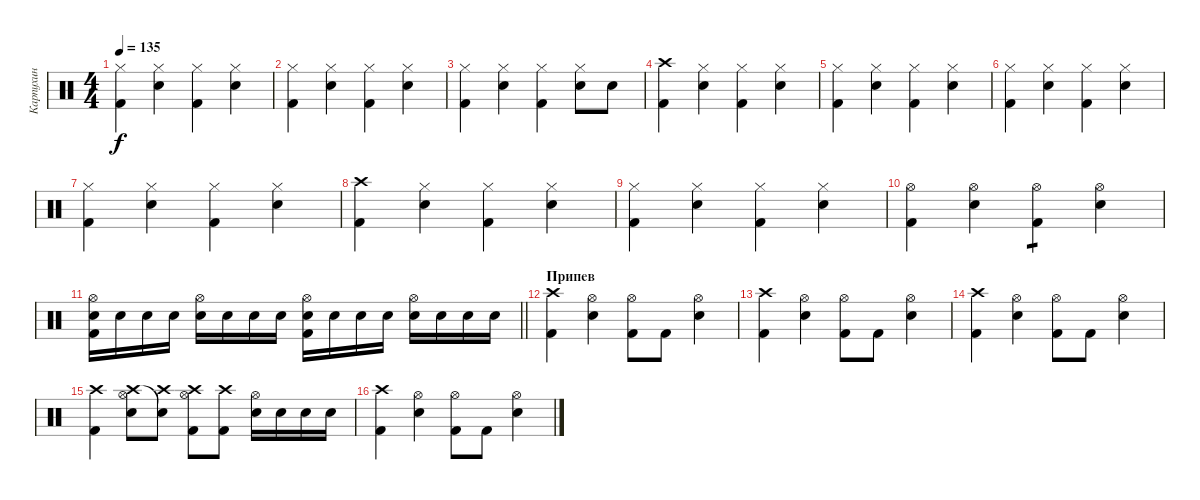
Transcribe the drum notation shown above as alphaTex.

\track ("Карпухин" "Карпухин") {instrument percussion}
\staff {score}
\articulation defaults
\ts (4 4)
\tempo 135
\clef neutral
\ks c
("Kick (hit) 2" "Hi-Hat (closed)").4{dy f} ("Snare (hit) 2" "Hi-Hat (closed)").4 ("Kick (hit) 2" "Hi-Hat (closed)").4 ("Snare (hit) 2" "Hi-Hat (closed)").4 |
("Kick (hit) 2" "Hi-Hat (closed)").4 ("Snare (hit) 2" "Hi-Hat (closed)").4 ("Kick (hit) 2" "Hi-Hat (closed)").4 ("Snare (hit) 2" "Hi-Hat (closed)").4 |
("Kick (hit) 2" "Hi-Hat (closed)").4 ("Snare (hit) 2" "Hi-Hat (closed)").4 ("Kick (hit) 2" "Hi-Hat (closed)").4 ("Snare (hit) 2" "Hi-Hat (closed)").8 "Snare (hit) 2".8 |
("Crash high (hit)" "Kick (hit) 2").4 ("Snare (hit) 2" "Hi-Hat (closed)").4 ("Kick (hit) 2" "Hi-Hat (closed)").4 ("Snare (hit) 2" "Hi-Hat (closed)").4 |
("Kick (hit) 2" "Hi-Hat (closed)").4 ("Snare (hit) 2" "Hi-Hat (closed)").4 ("Kick (hit) 2" "Hi-Hat (closed)").4 ("Snare (hit) 2" "Hi-Hat (closed)").4 |
("Kick (hit) 2" "Hi-Hat (closed)").4 ("Snare (hit) 2" "Hi-Hat (closed)").4 ("Kick (hit) 2" "Hi-Hat (closed)").4 ("Snare (hit) 2" "Hi-Hat (closed)").4 |
("Kick (hit) 2" "Hi-Hat (closed)").4 ("Snare (hit) 2" "Hi-Hat (closed)").4 ("Kick (hit) 2" "Hi-Hat (closed)").4 ("Snare (hit) 2" "Hi-Hat (closed)").4 |
("Crash high (hit)" "Kick (hit) 2").4 ("Snare (hit) 2" "Hi-Hat (closed)").4 ("Kick (hit) 2" "Hi-Hat (closed)").4 ("Snare (hit) 2" "Hi-Hat (closed)").4 |
("Kick (hit) 2" "Hi-Hat (closed)").4 ("Snare (hit) 2" "Hi-Hat (closed)").4 ("Kick (hit) 2" "Hi-Hat (closed)").4 ("Snare (hit) 2" "Hi-Hat (closed)").4 |
("Kick (hit) 2" "Hi-Hat (open)").4 ("Snare (hit) 2" "Hi-Hat (open)").4 ("Kick (hit) 2" "Hi-Hat (open)").4{tp 1} ("Snare (hit) 2" "Hi-Hat (open)").4 |
\barLineRight lightlight
("Snare (hit) 2" "Hi-Hat (open)" "Kick (hit) 2").16 "Snare (hit) 2".16 "Snare (hit) 2".16 "Snare (hit) 2".16 ("Snare (hit) 2" "Hi-Hat (open)").16 "Snare (hit) 2".16 "Snare (hit) 2".16 "Snare (hit) 2".16 ("Snare (hit) 2" "Hi-Hat (open)" "Kick (hit) 2").16 "Snare (hit) 2".16 "Snare (hit) 2".16 "Snare (hit) 2".16 ("Snare (hit) 2" "Hi-Hat (open)").16 "Snare (hit) 2".16 "Snare (hit) 2".16 "Snare (hit) 2".16 |
\section ("" "Припев")
("Crash high (hit)" "Kick (hit) 2").4 ("Snare (hit) 2" "Hi-Hat (open)").4 ("Kick (hit) 2" "Hi-Hat (open)").8 "Kick (hit) 2".8 ("Snare (hit) 2" "Hi-Hat (open)").4 |
("Crash high (hit)" "Kick (hit) 2").4 ("Snare (hit) 2" "Hi-Hat (open)").4 ("Kick (hit) 2" "Hi-Hat (open)").8 "Kick (hit) 2".8 ("Snare (hit) 2" "Hi-Hat (open)").4 |
("Crash high (hit)" "Kick (hit) 2").4 ("Snare (hit) 2" "Hi-Hat (open)").4 ("Kick (hit) 2" "Hi-Hat (open)").8 "Kick (hit) 2".8 ("Snare (hit) 2" "Hi-Hat (open)").4 |
("Crash high (hit)" "Kick (hit) 2").4 ("Hi-Hat (open)" "Crash high (hit)" "Snare (hit) 2").8 ("Crash high (hit)" "Snare (hit) 2"{t}).8 ("Hi-Hat (open)" "Crash high (hit)" "Kick (hit) 2").8 ("Crash high (hit)" "Kick (hit) 2").8 ("Hi-Hat (open)" "Snare (hit) 2").16 "Snare (hit) 2".16 "Snare (hit) 2".16 "Snare (hit) 2".16 |
("Crash high (hit)" "Kick (hit) 2").4 ("Snare (hit) 2" "Hi-Hat (open)").4 ("Kick (hit) 2" "Hi-Hat (open)").8 "Kick (hit) 2".8 ("Snare (hit) 2" "Hi-Hat (open)").4
